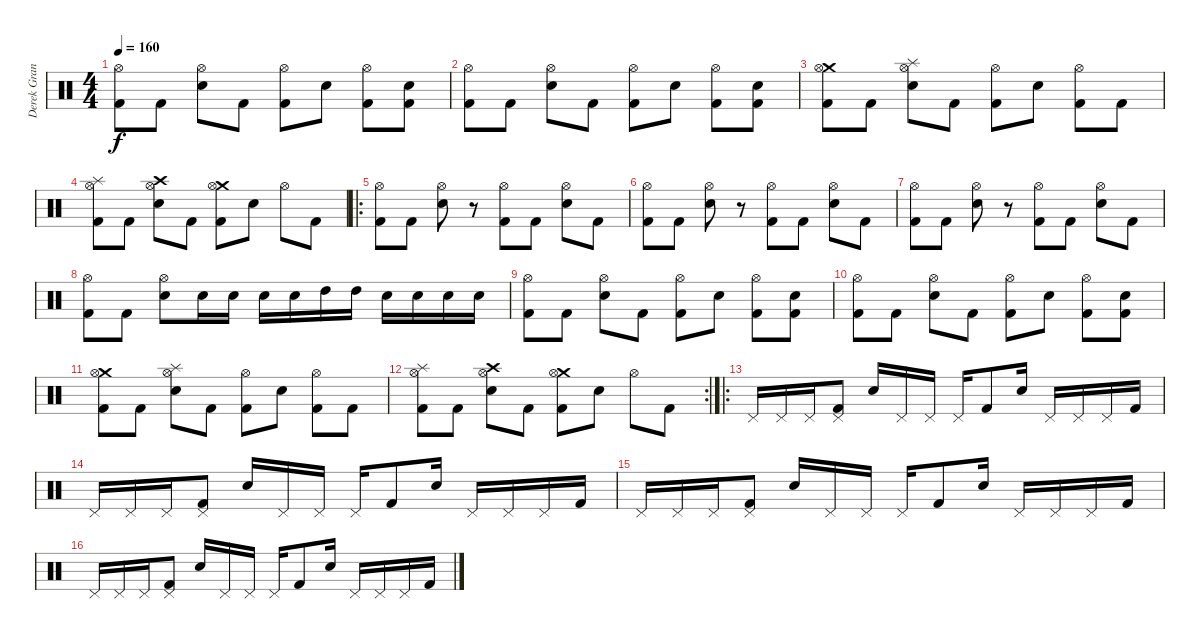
\track ("Derek Grant" "Derek Gran") {instrument percussion}
\staff {score}
\articulation defaults
\ts (4 4)
\tempo 160
\clef neutral
\ks c
("Hi-Hat (open)" "Kick (hit) 2").8{dy f} "Kick (hit) 2".8 ("Hi-Hat (open)" "Snare (hit) 2").8 "Kick (hit) 2".8 ("Hi-Hat (open)" "Kick (hit) 2").8 "Snare (hit) 2".8 ("Hi-Hat (open)" "Kick (hit) 2").8 ("Snare (hit) 2" "Kick (hit) 2").8 |
("Hi-Hat (open)" "Kick (hit) 2").8 "Kick (hit) 2".8 ("Hi-Hat (open)" "Snare (hit) 2").8 "Kick (hit) 2".8 ("Hi-Hat (open)" "Kick (hit) 2").8 "Snare (hit) 2".8 ("Hi-Hat (open)" "Kick (hit) 2").8 ("Snare (hit) 2" "Kick (hit) 2").8 |
("Crash medium (hit)" "Hi-Hat (open)" "Kick (hit) 2").8 "Kick (hit) 2".8 ("Splash (hit)" "Hi-Hat (open)" "Snare (hit) 2").8 "Kick (hit) 2".8 ("Hi-Hat (open)" "Kick (hit) 2").8 "Snare (hit) 2".8 ("Hi-Hat (open)" "Kick (hit) 2").8 "Kick (hit) 2".8 |
("Splash (hit)" "Hi-Hat (open)" "Kick (hit) 2").8 "Kick (hit) 2".8 ("Crash high (hit)" "Hi-Hat (open)" "Snare (hit) 2").8 "Kick (hit) 2".8 ("Crash medium (hit)" "Hi-Hat (open)" "Kick (hit) 2").8 "Snare (hit) 2".8 "Hi-Hat (open)".8 "Kick (hit) 2".8 |
\ro
("Hi-Hat (open)" "Kick (hit) 2").8 "Kick (hit) 2".8 ("Hi-Hat (open)" "Snare (hit) 2").8 r.8 ("Hi-Hat (open)" "Kick (hit) 2").8 "Kick (hit) 2".8 ("Hi-Hat (open)" "Snare (hit) 2").8 "Kick (hit) 2".8 |
("Hi-Hat (open)" "Kick (hit) 2").8 "Kick (hit) 2".8 ("Hi-Hat (open)" "Snare (hit) 2").8 r.8 ("Hi-Hat (open)" "Kick (hit) 2").8 "Kick (hit) 2".8 ("Hi-Hat (open)" "Snare (hit) 2").8 "Kick (hit) 2".8 |
("Hi-Hat (open)" "Kick (hit) 2").8 "Kick (hit) 2".8 ("Hi-Hat (open)" "Snare (hit) 2").8 r.8 ("Hi-Hat (open)" "Kick (hit) 2").8 "Kick (hit) 2".8 ("Hi-Hat (open)" "Snare (hit) 2").8 "Kick (hit) 2".8 |
("Hi-Hat (open)" "Kick (hit) 2").8 "Kick (hit) 2".8 ("Hi-Hat (open)" "Snare (hit) 2").8 "Snare (hit) 2".16 "Snare (hit) 2".16 "Snare (hit) 2".16 "Snare (hit) 2".16 "High Tom (hit)".16 "High Tom (hit)".16 "Snare (hit) 2".16 "Snare (hit) 2".16 "Snare (hit) 2".16 "Snare (hit) 2".16 |
("Hi-Hat (open)" "Kick (hit) 2").8 "Kick (hit) 2".8 ("Hi-Hat (open)" "Snare (hit) 2").8 "Kick (hit) 2".8 ("Hi-Hat (open)" "Kick (hit) 2").8 "Snare (hit) 2".8 ("Hi-Hat (open)" "Kick (hit) 2").8 ("Snare (hit) 2" "Kick (hit) 2").8 |
("Hi-Hat (open)" "Kick (hit) 2").8 "Kick (hit) 2".8 ("Hi-Hat (open)" "Snare (hit) 2").8 "Kick (hit) 2".8 ("Hi-Hat (open)" "Kick (hit) 2").8 "Snare (hit) 2".8 ("Hi-Hat (open)" "Kick (hit) 2").8 ("Snare (hit) 2" "Kick (hit) 2").8 |
("Crash medium (hit)" "Hi-Hat (open)" "Kick (hit) 2").8 "Kick (hit) 2".8 ("Splash (hit)" "Hi-Hat (open)" "Snare (hit) 2").8 "Kick (hit) 2".8 ("Hi-Hat (open)" "Kick (hit) 2").8 "Snare (hit) 2".8 ("Hi-Hat (open)" "Kick (hit) 2").8 "Kick (hit) 2".8 |
\rc 2
("Splash (hit)" "Hi-Hat (open)" "Kick (hit) 2").8 "Kick (hit) 2".8 ("Crash high (hit)" "Hi-Hat (open)" "Snare (hit) 2").8 "Kick (hit) 2".8 ("Crash medium (hit)" "Hi-Hat (open)" "Kick (hit) 2").8 "Snare (hit) 2".8 "Hi-Hat (open)".8 "Kick (hit) 2".8 |
\ro "Pedal Hi-Hat (hit)".16 "Pedal Hi-Hat (hit)".16 "Pedal Hi-Hat (hit)".16
("Pedal Hi-Hat (hit)" "Kick (hit) 2").8 "Snare (hit) 2".16 "Pedal Hi-Hat (hit)".16 "Pedal Hi-Hat (hit)".16 "Pedal Hi-Hat (hit)".16 "Kick (hit) 2".8 "Snare (hit) 2".16 "Pedal Hi-Hat (hit)".16 "Pedal Hi-Hat (hit)".16 "Pedal Hi-Hat (hit)".16 "Kick (hit) 2".16 |
"Pedal Hi-Hat (hit)".16 "Pedal Hi-Hat (hit)".16 "Pedal Hi-Hat (hit)".16 ("Pedal Hi-Hat (hit)" "Kick (hit) 2").8 "Snare (hit) 2".16 "Pedal Hi-Hat (hit)".16 "Pedal Hi-Hat (hit)".16 "Pedal Hi-Hat (hit)".16 "Kick (hit) 2".8 "Snare (hit) 2".16 "Pedal Hi-Hat (hit)".16 "Pedal Hi-Hat (hit)".16 "Pedal Hi-Hat (hit)".16 "Kick (hit) 2".16 |
"Pedal Hi-Hat (hit)".16 "Pedal Hi-Hat (hit)".16 "Pedal Hi-Hat (hit)".16 ("Pedal Hi-Hat (hit)" "Kick (hit) 2").8 "Snare (hit) 2".16 "Pedal Hi-Hat (hit)".16 "Pedal Hi-Hat (hit)".16 "Pedal Hi-Hat (hit)".16 "Kick (hit) 2".8 "Snare (hit) 2".16 "Pedal Hi-Hat (hit)".16 "Pedal Hi-Hat (hit)".16 "Pedal Hi-Hat (hit)".16 "Kick (hit) 2".16 |
"Pedal Hi-Hat (hit)".16 "Pedal Hi-Hat (hit)".16 "Pedal Hi-Hat (hit)".16 ("Pedal Hi-Hat (hit)" "Kick (hit) 2").8 "Snare (hit) 2".16 "Pedal Hi-Hat (hit)".16 "Pedal Hi-Hat (hit)".16 "Pedal Hi-Hat (hit)".16 "Kick (hit) 2".8 "Snare (hit) 2".16 "Pedal Hi-Hat (hit)".16 "Pedal Hi-Hat (hit)".16 "Pedal Hi-Hat (hit)".16 "Kick (hit) 2".16
